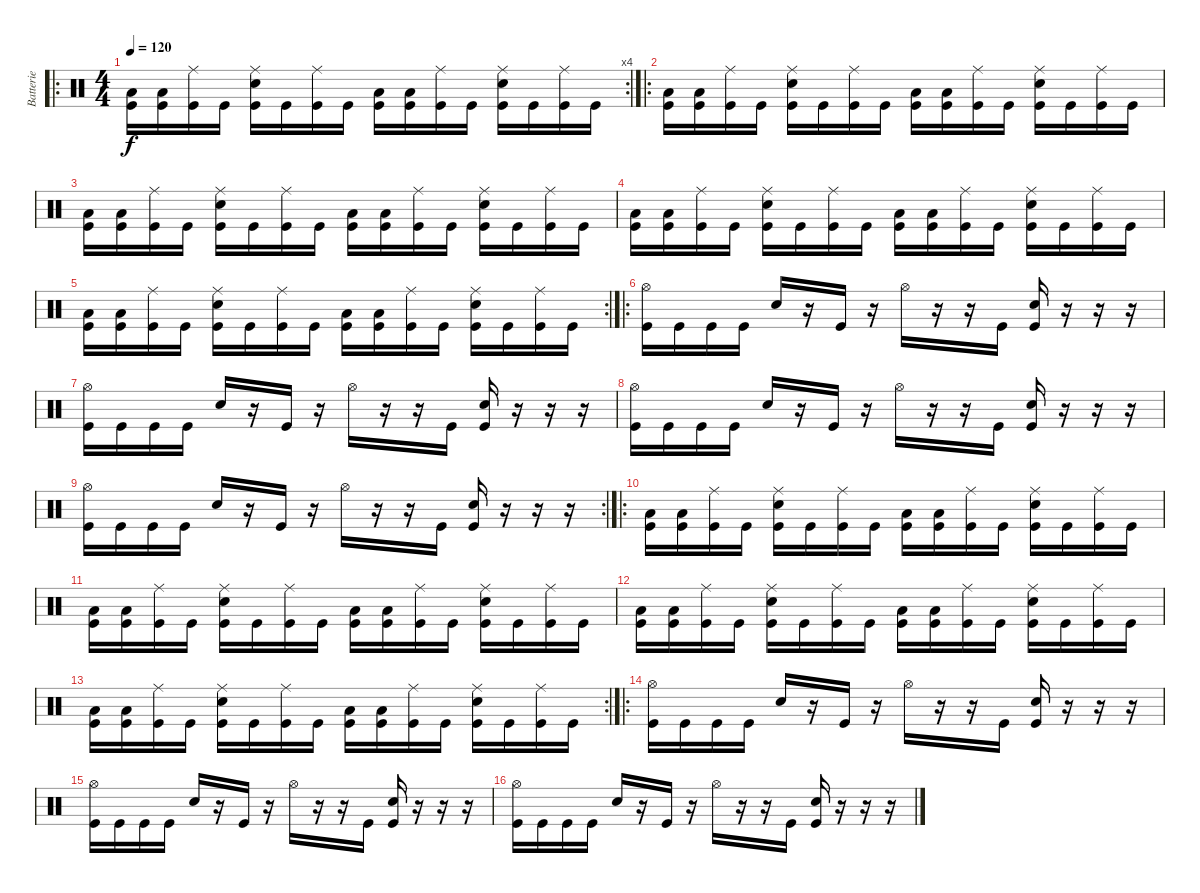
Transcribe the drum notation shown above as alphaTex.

\track ("Batterie" "Batterie") {instrument percussion}
\staff {score}
\articulation defaults
\ro
\rc 4
\ts (4 4)
\tempo 120
\clef neutral
\ks c
("Low Tom (hit)" "Kick (hit)").16{dy f} ("Low Tom (hit)" "Kick (hit)").16 ("Ride (middle)" "Kick (hit)").16 "Kick (hit)".16 ("Ride (middle)" "Electric Snare (hit)" "Kick (hit)").16 "Kick (hit)".16 ("Ride (middle)" "Kick (hit)").16 "Kick (hit)".16 ("Low Tom (hit)" "Kick (hit)").16 ("Low Tom (hit)" "Kick (hit)").16 ("Ride (middle)" "Kick (hit)").16 "Kick (hit)".16 ("Ride (middle)" "Electric Snare (hit)" "Kick (hit)").16 "Kick (hit)".16 ("Ride (middle)" "Kick (hit)").16 "Kick (hit)".16 |
\ro
("Low Tom (hit)" "Kick (hit)").16 ("Low Tom (hit)" "Kick (hit)").16 ("Ride (middle)" "Kick (hit)").16 "Kick (hit)".16 ("Ride (middle)" "Electric Snare (hit)" "Kick (hit)").16 "Kick (hit)".16 ("Ride (middle)" "Kick (hit)").16 "Kick (hit)".16 ("Low Tom (hit)" "Kick (hit)").16 ("Low Tom (hit)" "Kick (hit)").16 ("Ride (middle)" "Kick (hit)").16 "Kick (hit)".16 ("Ride (middle)" "Electric Snare (hit)" "Kick (hit)").16 "Kick (hit)".16 ("Ride (middle)" "Kick (hit)").16 "Kick (hit)".16 |
("Low Tom (hit)" "Kick (hit)").16 ("Low Tom (hit)" "Kick (hit)").16 ("Ride (middle)" "Kick (hit)").16 "Kick (hit)".16 ("Ride (middle)" "Electric Snare (hit)" "Kick (hit)").16 "Kick (hit)".16 ("Ride (middle)" "Kick (hit)").16 "Kick (hit)".16 ("Low Tom (hit)" "Kick (hit)").16 ("Low Tom (hit)" "Kick (hit)").16 ("Ride (middle)" "Kick (hit)").16 "Kick (hit)".16 ("Ride (middle)" "Electric Snare (hit)" "Kick (hit)").16 "Kick (hit)".16 ("Ride (middle)" "Kick (hit)").16 "Kick (hit)".16 |
("Low Tom (hit)" "Kick (hit)").16 ("Low Tom (hit)" "Kick (hit)").16 ("Ride (middle)" "Kick (hit)").16 "Kick (hit)".16 ("Ride (middle)" "Electric Snare (hit)" "Kick (hit)").16 "Kick (hit)".16 ("Ride (middle)" "Kick (hit)").16 "Kick (hit)".16 ("Low Tom (hit)" "Kick (hit)").16 ("Low Tom (hit)" "Kick (hit)").16 ("Ride (middle)" "Kick (hit)").16 "Kick (hit)".16 ("Ride (middle)" "Electric Snare (hit)" "Kick (hit)").16 "Kick (hit)".16 ("Ride (middle)" "Kick (hit)").16 "Kick (hit)".16 |
\rc 2
("Low Tom (hit)" "Kick (hit)").16 ("Low Tom (hit)" "Kick (hit)").16 ("Ride (middle)" "Kick (hit)").16 "Kick (hit)".16 ("Ride (middle)" "Electric Snare (hit)" "Kick (hit)").16 "Kick (hit)".16 ("Ride (middle)" "Kick (hit)").16 "Kick (hit)".16 ("Low Tom (hit)" "Kick (hit)").16 ("Low Tom (hit)" "Kick (hit)").16 ("Ride (middle)" "Kick (hit)").16 "Kick (hit)".16 ("Ride (middle)" "Electric Snare (hit)" "Kick (hit)").16 "Kick (hit)".16 ("Ride (middle)" "Kick (hit)").16 "Kick (hit)".16 |
\ro
("Hi-Hat (open)" "Kick (hit)").16 "Kick (hit)".16 "Kick (hit)".16 "Kick (hit)".16 "Snare (hit) 2".16 r.16 "Kick (hit)".16 r.16 "Hi-Hat (open)".16 r.16 r.16 "Kick (hit)".16 ("Snare (hit) 2" "Kick (hit)").16 r.16 r.16 r.16 |
("Hi-Hat (open)" "Kick (hit)").16 "Kick (hit)".16 "Kick (hit)".16 "Kick (hit)".16 "Snare (hit) 2".16 r.16 "Kick (hit)".16 r.16 "Hi-Hat (open)".16 r.16 r.16 "Kick (hit)".16 ("Snare (hit) 2" "Kick (hit)").16 r.16 r.16 r.16 |
("Hi-Hat (open)" "Kick (hit)").16 "Kick (hit)".16 "Kick (hit)".16 "Kick (hit)".16 "Snare (hit) 2".16 r.16 "Kick (hit)".16 r.16 "Hi-Hat (open)".16 r.16 r.16 "Kick (hit)".16 ("Snare (hit) 2" "Kick (hit)").16 r.16 r.16 r.16 |
\rc 2
("Hi-Hat (open)" "Kick (hit)").16 "Kick (hit)".16 "Kick (hit)".16 "Kick (hit)".16 "Snare (hit) 2".16 r.16 "Kick (hit)".16 r.16 "Hi-Hat (open)".16 r.16 r.16 "Kick (hit)".16 ("Snare (hit) 2" "Kick (hit)").16 r.16 r.16 r.16 |
\ro
("Low Tom (hit)" "Kick (hit)").16 ("Low Tom (hit)" "Kick (hit)").16 ("Ride (middle)" "Kick (hit)").16 "Kick (hit)".16 ("Ride (middle)" "Electric Snare (hit)" "Kick (hit)").16 "Kick (hit)".16 ("Ride (middle)" "Kick (hit)").16 "Kick (hit)".16 ("Low Tom (hit)" "Kick (hit)").16 ("Low Tom (hit)" "Kick (hit)").16 ("Ride (middle)" "Kick (hit)").16 "Kick (hit)".16 ("Ride (middle)" "Electric Snare (hit)" "Kick (hit)").16 "Kick (hit)".16 ("Ride (middle)" "Kick (hit)").16 "Kick (hit)".16 |
("Low Tom (hit)" "Kick (hit)").16 ("Low Tom (hit)" "Kick (hit)").16 ("Ride (middle)" "Kick (hit)").16 "Kick (hit)".16 ("Ride (middle)" "Electric Snare (hit)" "Kick (hit)").16 "Kick (hit)".16 ("Ride (middle)" "Kick (hit)").16 "Kick (hit)".16 ("Low Tom (hit)" "Kick (hit)").16 ("Low Tom (hit)" "Kick (hit)").16 ("Ride (middle)" "Kick (hit)").16 "Kick (hit)".16 ("Ride (middle)" "Electric Snare (hit)" "Kick (hit)").16 "Kick (hit)".16 ("Ride (middle)" "Kick (hit)").16 "Kick (hit)".16 |
("Low Tom (hit)" "Kick (hit)").16 ("Low Tom (hit)" "Kick (hit)").16 ("Ride (middle)" "Kick (hit)").16 "Kick (hit)".16 ("Ride (middle)" "Electric Snare (hit)" "Kick (hit)").16 "Kick (hit)".16 ("Ride (middle)" "Kick (hit)").16 "Kick (hit)".16 ("Low Tom (hit)" "Kick (hit)").16 ("Low Tom (hit)" "Kick (hit)").16 ("Ride (middle)" "Kick (hit)").16 "Kick (hit)".16 ("Ride (middle)" "Electric Snare (hit)" "Kick (hit)").16 "Kick (hit)".16 ("Ride (middle)" "Kick (hit)").16 "Kick (hit)".16 |
\rc 2
("Low Tom (hit)" "Kick (hit)").16 ("Low Tom (hit)" "Kick (hit)").16 ("Ride (middle)" "Kick (hit)").16 "Kick (hit)".16 ("Ride (middle)" "Electric Snare (hit)" "Kick (hit)").16 "Kick (hit)".16 ("Ride (middle)" "Kick (hit)").16 "Kick (hit)".16 ("Low Tom (hit)" "Kick (hit)").16 ("Low Tom (hit)" "Kick (hit)").16 ("Ride (middle)" "Kick (hit)").16 "Kick (hit)".16 ("Ride (middle)" "Electric Snare (hit)" "Kick (hit)").16 "Kick (hit)".16 ("Ride (middle)" "Kick (hit)").16 "Kick (hit)".16 |
\ro
("Hi-Hat (open)" "Kick (hit)").16 "Kick (hit)".16 "Kick (hit)".16 "Kick (hit)".16 "Snare (hit) 2".16 r.16 "Kick (hit)".16 r.16 "Hi-Hat (open)".16 r.16 r.16 "Kick (hit)".16 ("Snare (hit) 2" "Kick (hit)").16 r.16 r.16 r.16 |
("Hi-Hat (open)" "Kick (hit)").16 "Kick (hit)".16 "Kick (hit)".16 "Kick (hit)".16 "Snare (hit) 2".16 r.16 "Kick (hit)".16 r.16 "Hi-Hat (open)".16 r.16 r.16 "Kick (hit)".16 ("Snare (hit) 2" "Kick (hit)").16 r.16 r.16 r.16 |
("Hi-Hat (open)" "Kick (hit)").16 "Kick (hit)".16 "Kick (hit)".16 "Kick (hit)".16 "Snare (hit) 2".16 r.16 "Kick (hit)".16 r.16 "Hi-Hat (open)".16 r.16 r.16 "Kick (hit)".16 ("Snare (hit) 2" "Kick (hit)").16 r.16 r.16 r.16
